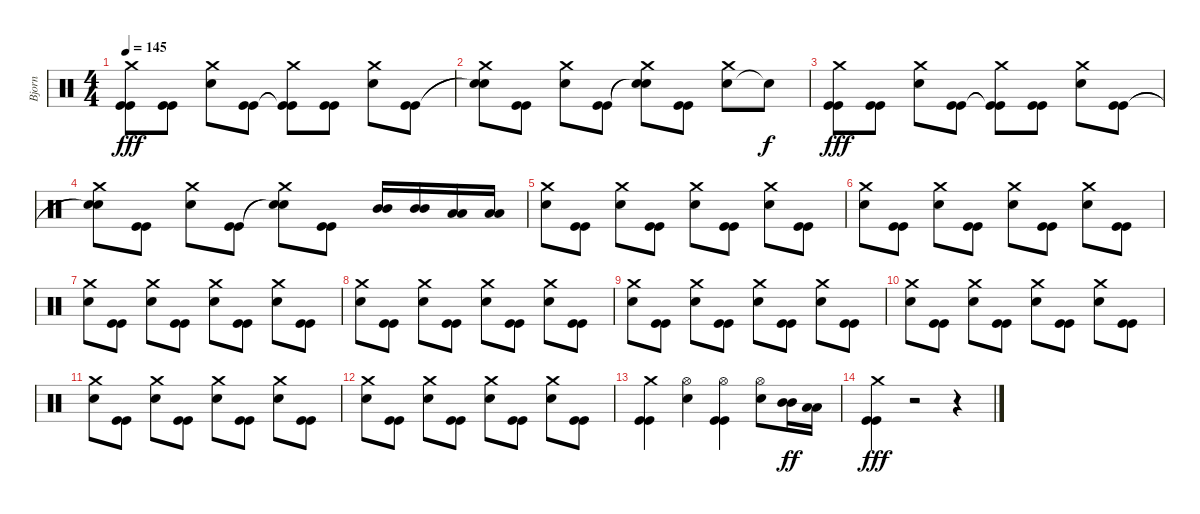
\track ("Bjorn" "Bjorn") {instrument percussion}
\staff {score}
\articulation defaults
\ts (4 4)
\tempo 145
\clef neutral
\ks c
("Kick (hit)" "Kick (hit)" "Crash medium (hit)").8{dy fff} ("Kick (hit)" "Kick (hit)").8 ("Snare (hit) 2" "Crash medium (hit)").8 ("Kick (hit)" "Kick (hit)").8 ("Kick (hit)"{t} "Kick (hit)"{t} "Crash medium (hit)").8 ("Kick (hit)" "Kick (hit)").8 ("Snare (hit) 2" "Crash medium (hit)").8 ("Kick (hit)" "Kick (hit)").8 |
("Snare (hit)"{t} "Snare (hit)"{t} "Crash medium (hit)").8 ("Kick (hit)" "Kick (hit)").8 ("Snare (hit) 2" "Crash medium (hit)").8 ("Kick (hit)" "Kick (hit)").8 ("Snare (hit)"{t} "Snare (hit)"{t} "Crash medium (hit)").8 ("Kick (hit)" "Kick (hit)").8 ("Snare (hit) 2" "Crash medium (hit)").8 "Snare (hit)"{t}.8{dy f} |
("Kick (hit)" "Kick (hit)" "Crash medium (hit)").8{dy fff} ("Kick (hit)" "Kick (hit)").8 ("Snare (hit) 2" "Crash medium (hit)").8 ("Kick (hit)" "Kick (hit)").8 ("Kick (hit)"{t} "Kick (hit)"{t} "Crash medium (hit)").8 ("Kick (hit)" "Kick (hit)").8 ("Snare (hit) 2" "Crash medium (hit)").8 ("Kick (hit)" "Kick (hit)").8 |
("Snare (hit)"{t} "Snare (hit)"{t} "Crash medium (hit)").8 ("Kick (hit)" "Kick (hit)").8 ("Snare (hit) 2" "Crash medium (hit)").8 ("Kick (hit)" "Kick (hit)").8 ("Snare (hit)"{t} "Snare (hit)"{t} "Crash medium (hit)").8 ("Kick (hit)" "Kick (hit)").8 ("Mid Tom (hit)" "Mid Tom (hit)").16 ("Mid Tom (hit)" "Mid Tom (hit)").16 ("Low Tom (hit)" "Low Tom (hit)").16 ("Low Tom (hit)" "Low Tom (hit)").16 |
("Snare (hit) 2" "Crash medium (hit)").8 ("Kick (hit)" "Kick (hit)").8 ("Snare (hit) 2" "Crash medium (hit)").8 ("Kick (hit)" "Kick (hit)").8 ("Snare (hit) 2" "Crash medium (hit)").8 ("Kick (hit)" "Kick (hit)").8 ("Snare (hit) 2" "Crash medium (hit)").8 ("Kick (hit)" "Kick (hit)").8 |
("Snare (hit) 2" "Crash medium (hit)").8 ("Kick (hit)" "Kick (hit)").8 ("Snare (hit) 2" "Crash medium (hit)").8 ("Kick (hit)" "Kick (hit)").8 ("Snare (hit) 2" "Crash medium (hit)").8 ("Kick (hit)" "Kick (hit)").8 ("Snare (hit) 2" "Crash medium (hit)").8 ("Kick (hit)" "Kick (hit)").8 |
("Snare (hit) 2" "Crash medium (hit)").8 ("Kick (hit)" "Kick (hit)").8 ("Snare (hit) 2" "Crash medium (hit)").8 ("Kick (hit)" "Kick (hit)").8 ("Snare (hit) 2" "Crash medium (hit)").8 ("Kick (hit)" "Kick (hit)").8 ("Snare (hit) 2" "Crash medium (hit)").8 ("Kick (hit)" "Kick (hit)").8 |
("Snare (hit) 2" "Crash medium (hit)").8 ("Kick (hit)" "Kick (hit)").8 ("Snare (hit) 2" "Crash medium (hit)").8 ("Kick (hit)" "Kick (hit)").8 ("Snare (hit) 2" "Crash medium (hit)").8 ("Kick (hit)" "Kick (hit)").8 ("Snare (hit) 2" "Crash medium (hit)").8 ("Kick (hit)" "Kick (hit)").8 |
("Snare (hit) 2" "Crash medium (hit)").8 ("Kick (hit)" "Kick (hit)").8 ("Snare (hit) 2" "Crash medium (hit)").8 ("Kick (hit)" "Kick (hit)").8 ("Snare (hit) 2" "Crash medium (hit)").8 ("Kick (hit)" "Kick (hit)").8 ("Snare (hit) 2" "Crash medium (hit)").8 ("Kick (hit)" "Kick (hit)").8 |
("Snare (hit) 2" "Crash medium (hit)").8 ("Kick (hit)" "Kick (hit)").8 ("Snare (hit) 2" "Crash medium (hit)").8 ("Kick (hit)" "Kick (hit)").8 ("Snare (hit) 2" "Crash medium (hit)").8 ("Kick (hit)" "Kick (hit)").8 ("Snare (hit) 2" "Crash medium (hit)").8 ("Kick (hit)" "Kick (hit)").8 |
("Snare (hit) 2" "Crash medium (hit)").8 ("Kick (hit)" "Kick (hit)").8 ("Snare (hit) 2" "Crash medium (hit)").8 ("Kick (hit)" "Kick (hit)").8 ("Snare (hit) 2" "Crash medium (hit)").8 ("Kick (hit)" "Kick (hit)").8 ("Snare (hit) 2" "Crash medium (hit)").8 ("Kick (hit)" "Kick (hit)").8 |
("Snare (hit) 2" "Crash medium (hit)").8 ("Kick (hit)" "Kick (hit)").8 ("Snare (hit) 2" "Crash medium (hit)").8 ("Kick (hit)" "Kick (hit)").8 ("Snare (hit) 2" "Crash medium (hit)").8 ("Kick (hit)" "Kick (hit)").8 ("Snare (hit) 2" "Crash medium (hit)").8 ("Kick (hit)" "Kick (hit)").8 |
("Kick (hit)" "Kick (hit)" "Crash medium (hit)").4 ("Snare (hit) 2" "Hi-Hat (open)").4 ("Kick (hit)" "Kick (hit)" "Hi-Hat (open)").4 ("Snare (hit) 2" "Hi-Hat (open)").8 ("Mid Tom (hit)" "Mid Tom (hit)").16{dy ff} ("Low Tom (hit)" "Low Tom (hit)").16 |
("Kick (hit)" "Kick (hit)" "Crash medium (hit)").4{dy fff} r.2 r.4
